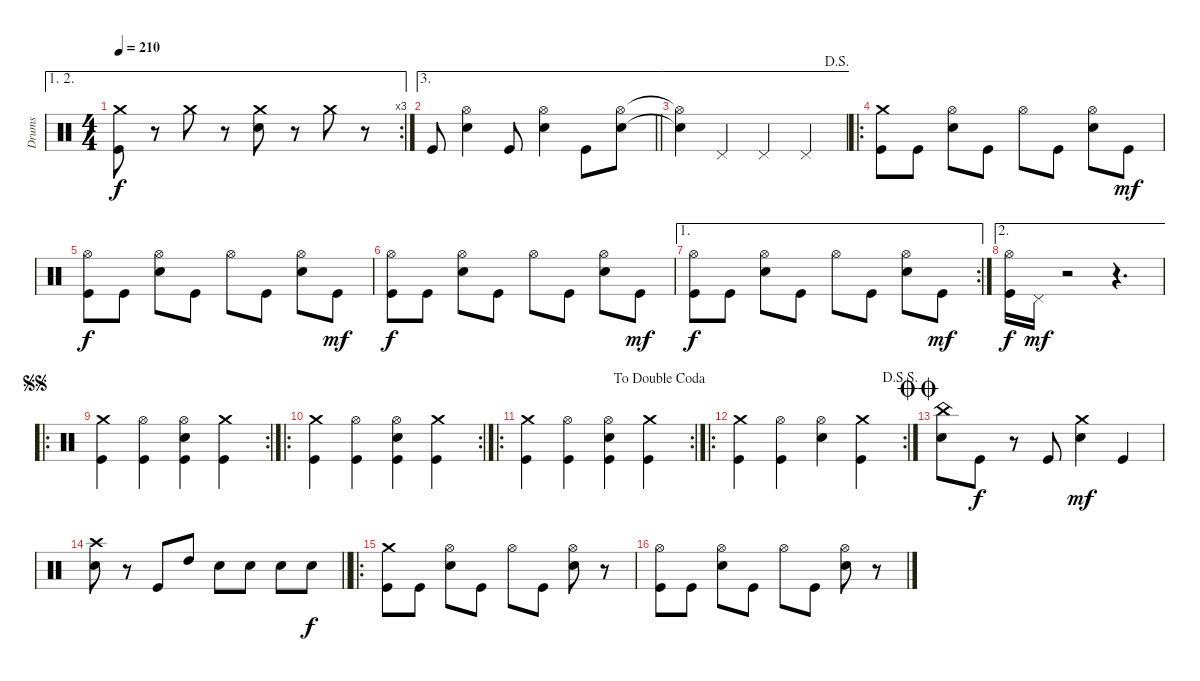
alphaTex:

\bracketExtendMode groupsimilarinstruments
\otherSystemsTrackNameOrientation horizontal
\track ("Drumkit" "Drums") {multiBarRest instrument percussion}
\staff {score}
\articulation defaults
\ae (1 2)
\rc 3
\ts (4 4)
\tempo 210
\clef neutral
\ks c
("Crash medium (hit)" "Kick (hit)").8{dy f} r.8 "Crash medium (hit)".8 r.8 ("Crash medium (hit)" "Snare (hit) 2").8 r.8 "Crash medium (hit)".8 r.8 |
\ae 3
\barLineRight lightlight "Kick (hit)".8
("Hi-Hat (open)" "Snare (hit) 2").4 "Kick (hit)".8 ("Hi-Hat (open)" "Snare (hit) 2").4 "Kick (hit)".8 ("Hi-Hat (open)" "Snare (hit) 2").8 |
\ae 3
\jump dalsegno
("Hi-Hat (open)"{t} "Snare (hit) 2"{t}).4 "Pedal Hi-Hat (hit)".4 "Pedal Hi-Hat (hit)".4 "Pedal Hi-Hat (hit)".4 |
\ro
("Crash medium (hit)" "Kick (hit)").8 "Kick (hit)".8 ("Hi-Hat (open)" "Snare (hit) 2").8 "Kick (hit)".8 "Hi-Hat (open)".8 "Kick (hit)".8 ("Hi-Hat (open)" "Snare (hit) 2").8 "Kick (hit)".8{dy mf} |
("Hi-Hat (open)" "Kick (hit)").8{dy f} "Kick (hit)".8 ("Hi-Hat (open)" "Snare (hit) 2").8 "Kick (hit)".8 "Hi-Hat (open)".8 "Kick (hit)".8 ("Hi-Hat (open)" "Snare (hit) 2").8 "Kick (hit)".8{dy mf} |
("Hi-Hat (open)" "Kick (hit)").8{dy f} "Kick (hit)".8 ("Hi-Hat (open)" "Snare (hit) 2").8 "Kick (hit)".8 "Hi-Hat (open)".8 "Kick (hit)".8 ("Hi-Hat (open)" "Snare (hit) 2").8 "Kick (hit)".8{dy mf} |
\ae 1
\rc 2
("Hi-Hat (open)" "Kick (hit)").8{dy f} "Kick (hit)".8 ("Hi-Hat (open)" "Snare (hit) 2").8 "Kick (hit)".8 "Hi-Hat (open)".8 "Kick (hit)".8 ("Hi-Hat (open)" "Snare (hit) 2").8 "Kick (hit)".8{dy mf} |
\ae 2
("Hi-Hat (open)" "Kick (hit)").16{dy f} "Pedal Hi-Hat (hit)".16{dy mf} r.2 r.4{d} |
\ro
\rc 2
\jump segnosegno
("Crash medium (hit)" "Kick (hit)").4 ("Hi-Hat (open)" "Kick (hit)").4 ("Hi-Hat (open)" "Snare (hit) 2" "Kick (hit)").4 ("Crash medium (hit)" "Kick (hit)").4 |
\ro
\rc 2
("Crash medium (hit)" "Kick (hit)").4 ("Hi-Hat (open)" "Kick (hit)").4 ("Hi-Hat (open)" "Snare (hit) 2" "Kick (hit)").4 ("Crash medium (hit)" "Kick (hit)").4 |
\ro
\rc 2
\jump dadoublecoda
("Crash medium (hit)" "Kick (hit)").4 ("Hi-Hat (open)" "Kick (hit)").4 ("Hi-Hat (open)" "Snare (hit) 2" "Kick (hit)").4 ("Crash medium (hit)" "Kick (hit)").4 |
\ro
\rc 2
\jump dalsegnosegno
("Kick (hit)" "Crash medium (hit)").4 ("Hi-Hat (open)" "Kick (hit)").4 ("Hi-Hat (open)" "Snare (hit) 2").4 ("Crash medium (hit)" "Kick (hit)").4 |
\jump doublecoda
("China (hit)" "Snare (hit) 2").8 "Kick (hit)".8{dy f} r.8 "Kick (hit)".8 ("Crash medium (hit)" "Snare (hit) 2").4{dy mf} "Kick (hit)".4 |
\barLineRight lightlight
("Crash high (hit)" "Snare (hit) 2").8 r.8 "Kick (hit)".8 "High Tom (hit)".8 "Snare (hit) 2".8 "Snare (hit) 2".8 "Snare (hit) 2".8 "Snare (hit) 2".8{dy f} |
\ro
("Crash medium (hit)" "Kick (hit)").8 "Kick (hit)".8 ("Hi-Hat (open)" "Snare (hit) 2").8 "Kick (hit)".8 "Hi-Hat (open)".8 "Kick (hit)".8 ("Hi-Hat (open)" "Snare (hit) 2").8 r.8 |
("Hi-Hat (open)" "Kick (hit)").8 "Kick (hit)".8 ("Hi-Hat (open)" "Snare (hit) 2").8 "Kick (hit)".8 "Hi-Hat (open)".8 "Kick (hit)".8 ("Hi-Hat (open)" "Snare (hit) 2").8 r.8
